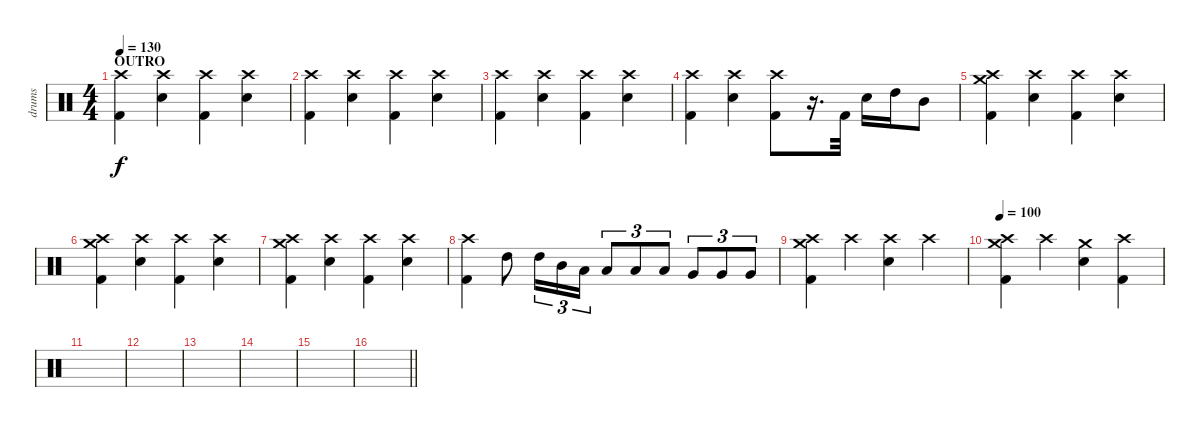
\track ("drums" "drums") {instrument percussion}
\staff {score}
\articulation defaults
\ts (4 4)
\section ("" "OUTRO")
\tempo 130
\clef neutral
\ks c
("Crash high (hit)" "Kick (hit) 2").4{dy f} ("Crash high (hit)" "Electric Snare (hit)").4 ("Crash high (hit)" "Kick (hit) 2").4 ("Crash high (hit)" "Electric Snare (hit)").4 |
("Crash high (hit)" "Kick (hit) 2").4 ("Crash high (hit)" "Electric Snare (hit)").4 ("Crash high (hit)" "Kick (hit) 2").4 ("Crash high (hit)" "Electric Snare (hit)").4 |
("Crash high (hit)" "Kick (hit) 2").4 ("Crash high (hit)" "Electric Snare (hit)").4 ("Crash high (hit)" "Kick (hit) 2").4 ("Crash high (hit)" "Electric Snare (hit)").4 |
("Crash high (hit)" "Kick (hit) 2").4 ("Crash high (hit)" "Electric Snare (hit)").4 ("Crash high (hit)" "Kick (hit) 2").8 r.16{d} "Kick (hit) 2".32 "Electric Snare (hit)".16 "High Tom (hit)".16 "Mid Tom (hit)".8 |
("Crash high (hit)" "Crash medium (hit)" "Kick (hit) 2").4 ("Crash high (hit)" "Electric Snare (hit)").4 ("Crash high (hit)" "Kick (hit) 2").4 ("Crash high (hit)" "Electric Snare (hit)").4 |
("Crash high (hit)" "Crash medium (hit)" "Kick (hit) 2").4 ("Crash high (hit)" "Electric Snare (hit)").4 ("Crash high (hit)" "Kick (hit) 2").4 ("Crash high (hit)" "Electric Snare (hit)").4 |
("Crash high (hit)" "Crash medium (hit)" "Kick (hit) 2").4 ("Crash high (hit)" "Electric Snare (hit)").4 ("Crash high (hit)" "Kick (hit) 2").4 ("Crash high (hit)" "Electric Snare (hit)").4 |
("Crash high (hit)" "Kick (hit) 2").4 "High Tom (hit)".8 "High Tom (hit)".16{tu (3 2)} "Mid Tom (hit)".16{tu (3 2)} "Low Tom (hit)".16{tu (3 2)} "Low Tom (hit)".8{tu (3 2)} "Low Tom (hit)".8{tu (3 2)} "Low Tom (hit)".8{tu (3 2)} "Very Low Tom (hit)".8{tu (3 2)} "Very Low Tom (hit)".8{tu (3 2)} "Very Low Tom (hit)".8{tu (3 2)} |
("Crash high (hit)" "Crash medium (hit)" "Kick (hit) 2").4 "Crash high (hit)".4 ("Crash high (hit)" "Electric Snare (hit)").4 "Crash high (hit)".4 |
\tempo 100
("Crash high (hit)" "Crash medium (hit)" "Kick (hit) 2").4 "Crash high (hit)".4 ("Crash medium (hit)" "Electric Snare (hit)").4 ("Crash high (hit)" "Kick (hit) 2").4 |
|
|
|
|
|
\barLineRight lightlight
